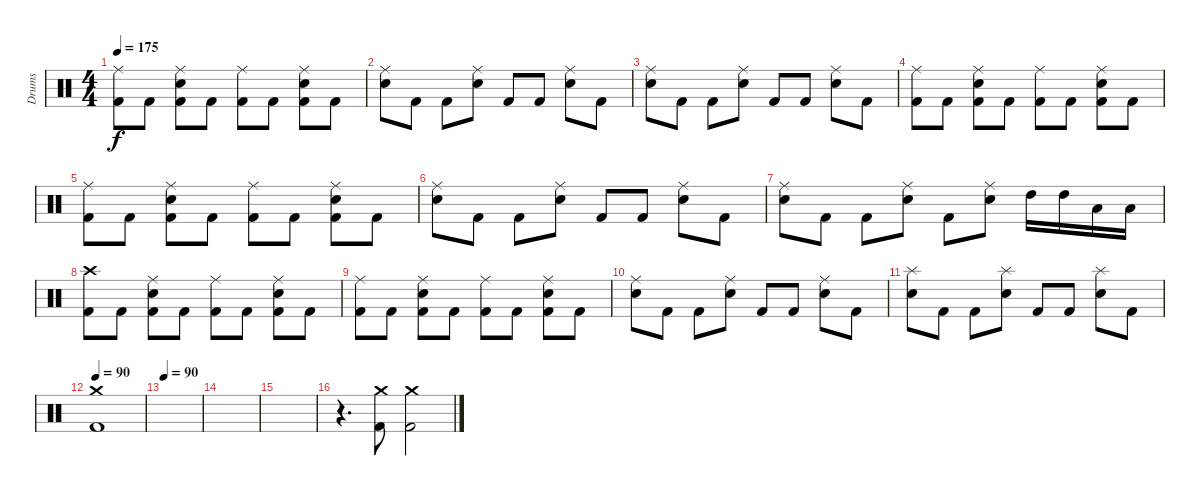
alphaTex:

\track ("Drums" "Drums") {instrument percussion}
\staff {score}
\articulation defaults
\ts (4 4)
\tempo 175
\clef neutral
\ks c
("Ride (middle)" "Kick (hit) 2").8{dy f} "Kick (hit) 2".8 ("Ride (middle)" "Snare (hit) 2" "Kick (hit) 2").8 "Kick (hit) 2".8 ("Ride (middle)" "Kick (hit) 2").8 "Kick (hit) 2".8 ("Ride (middle)" "Snare (hit) 2" "Kick (hit) 2").8 "Kick (hit) 2".8 |
("Snare (hit) 2" "Ride (middle)").8 "Kick (hit) 2".8 "Kick (hit) 2".8 ("Snare (hit) 2" "Ride (middle)").8 "Kick (hit) 2".8 "Kick (hit) 2".8 ("Snare (hit) 2" "Ride (middle)").8 "Kick (hit) 2".8 |
("Snare (hit) 2" "Ride (middle)").8 "Kick (hit) 2".8 "Kick (hit) 2".8 ("Snare (hit) 2" "Ride (middle)").8 "Kick (hit) 2".8 "Kick (hit) 2".8 ("Snare (hit) 2" "Ride (middle)").8 "Kick (hit) 2".8 |
("Ride (middle)" "Kick (hit) 2").8 "Kick (hit) 2".8 ("Ride (middle)" "Snare (hit) 2" "Kick (hit) 2").8 "Kick (hit) 2".8 ("Ride (middle)" "Kick (hit) 2").8 "Kick (hit) 2".8 ("Ride (middle)" "Snare (hit) 2" "Kick (hit) 2").8 "Kick (hit) 2".8 |
("Ride (middle)" "Kick (hit) 2").8 "Kick (hit) 2".8 ("Ride (middle)" "Snare (hit) 2" "Kick (hit) 2").8 "Kick (hit) 2".8 ("Ride (middle)" "Kick (hit) 2").8 "Kick (hit) 2".8 ("Ride (middle)" "Snare (hit) 2" "Kick (hit) 2").8 "Kick (hit) 2".8 |
("Snare (hit) 2" "Ride (middle)").8 "Kick (hit) 2".8 "Kick (hit) 2".8 ("Snare (hit) 2" "Ride (middle)").8 "Kick (hit) 2".8 "Kick (hit) 2".8 ("Snare (hit) 2" "Ride (middle)").8 "Kick (hit) 2".8 |
("Snare (hit) 2" "Ride (middle)").8 "Kick (hit) 2".8 "Kick (hit) 2".8 ("Snare (hit) 2" "Ride (middle)").8 "Kick (hit) 2".8 ("Snare (hit) 2" "Ride (middle)").8 "High Tom (hit)".16 "High Tom (hit)".16 "Low Tom (hit)".16 "Low Tom (hit)".16 |
("Crash high (hit)" "Kick (hit) 2").8 "Kick (hit) 2".8 ("Ride (middle)" "Snare (hit) 2" "Kick (hit) 2").8 "Kick (hit) 2".8 ("Ride (middle)" "Kick (hit) 2").8 "Kick (hit) 2".8 ("Ride (middle)" "Snare (hit) 2" "Kick (hit) 2").8 "Kick (hit) 2".8 |
("Ride (middle)" "Kick (hit) 2").8 "Kick (hit) 2".8 ("Ride (middle)" "Snare (hit) 2" "Kick (hit) 2").8 "Kick (hit) 2".8 ("Ride (middle)" "Kick (hit) 2").8 "Kick (hit) 2".8 ("Ride (middle)" "Snare (hit) 2" "Kick (hit) 2").8 "Kick (hit) 2".8 |
("Snare (hit) 2" "Ride (middle)").8 "Kick (hit) 2".8 "Kick (hit) 2".8 ("Snare (hit) 2" "Ride (middle)").8 "Kick (hit) 2".8 "Kick (hit) 2".8 ("Snare (hit) 2" "Ride (middle)").8 "Kick (hit) 2".8 |
("Snare (hit) 2" "Splash (hit)").8 "Kick (hit) 2".8 "Kick (hit) 2".8 ("Snare (hit) 2" "Splash (hit)").8 "Kick (hit) 2".8 "Kick (hit) 2".8 ("Snare (hit) 2" "Splash (hit)").8 "Kick (hit) 2".8 |
\tempo 90
("Crash medium (hit)" "Kick (hit) 2").1 |
\tempo 90
|
|
|
r.4{d} ("Crash medium (hit)" "Kick (hit) 2").8 ("Crash medium (hit)" "Kick (hit) 2").2
